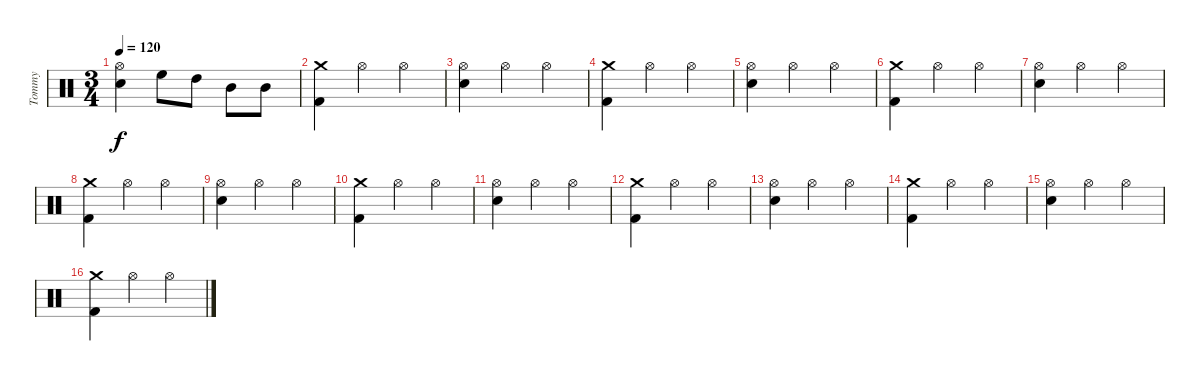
\track ("Tommy" "Tommy") {instrument percussion}
\staff {score}
\articulation defaults
\ts (3 4)
\tempo 120
\clef neutral
\ks c
("Hi-Hat (open)" "Electric Snare (hit)").4{dy f} "High Floor Tom (hit)".8 "High Tom (hit)".8 "Mid Tom (hit)".8 "Mid Tom (hit)".8 |
("Crash medium (hit)" "Kick (hit) 2").4 "Hi-Hat (open)".4 "Hi-Hat (open)".4 |
("Hi-Hat (open)" "Electric Snare (hit)").4 "Hi-Hat (open)".4 "Hi-Hat (open)".4 |
("Crash medium (hit)" "Kick (hit) 2").4 "Hi-Hat (open)".4 "Hi-Hat (open)".4 |
("Hi-Hat (open)" "Electric Snare (hit)").4 "Hi-Hat (open)".4 "Hi-Hat (open)".4 |
("Crash medium (hit)" "Kick (hit) 2").4 "Hi-Hat (open)".4 "Hi-Hat (open)".4 |
("Hi-Hat (open)" "Electric Snare (hit)").4 "Hi-Hat (open)".4 "Hi-Hat (open)".4 |
("Crash medium (hit)" "Kick (hit) 2").4 "Hi-Hat (open)".4 "Hi-Hat (open)".4 |
("Hi-Hat (open)" "Electric Snare (hit)").4 "Hi-Hat (open)".4 "Hi-Hat (open)".4 |
("Crash medium (hit)" "Kick (hit) 2").4 "Hi-Hat (open)".4 "Hi-Hat (open)".4 |
("Hi-Hat (open)" "Electric Snare (hit)").4 "Hi-Hat (open)".4 "Hi-Hat (open)".4 |
("Crash medium (hit)" "Kick (hit) 2").4 "Hi-Hat (open)".4 "Hi-Hat (open)".4 |
("Hi-Hat (open)" "Electric Snare (hit)").4 "Hi-Hat (open)".4 "Hi-Hat (open)".4 |
("Crash medium (hit)" "Kick (hit) 2").4 "Hi-Hat (open)".4 "Hi-Hat (open)".4 |
("Hi-Hat (open)" "Electric Snare (hit)").4 "Hi-Hat (open)".4 "Hi-Hat (open)".4 |
("Crash medium (hit)" "Kick (hit) 2").4 "Hi-Hat (open)".4 "Hi-Hat (open)".4
